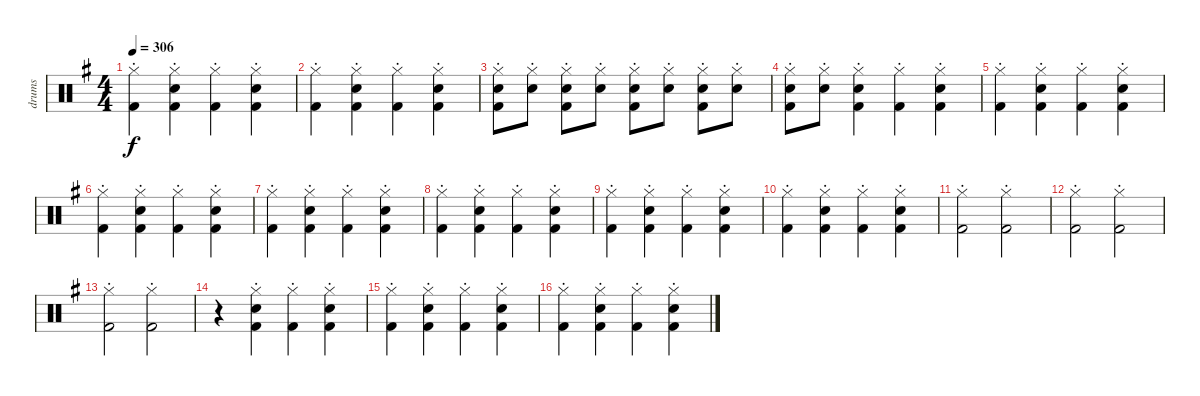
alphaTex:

\track ("drums" "drums") {instrument percussion}
\staff {score}
\articulation defaults
\ts (4 4)
\tempo 306
\clef neutral
\ks g
("Hi-Hat (closed)"{st} "Kick (hit) 2").4{dy f} ("Hi-Hat (closed)"{st} "Electric Snare (hit)" "Kick (hit) 2").4 ("Hi-Hat (closed)"{st} "Kick (hit) 2").4 ("Hi-Hat (closed)"{st} "Electric Snare (hit)" "Kick (hit) 2").4 |
("Hi-Hat (closed)"{st} "Kick (hit) 2").4 ("Hi-Hat (closed)"{st} "Electric Snare (hit)" "Kick (hit) 2").4 ("Hi-Hat (closed)"{st} "Kick (hit) 2").4 ("Hi-Hat (closed)"{st} "Electric Snare (hit)" "Kick (hit) 2").4 |
("Hi-Hat (closed)"{st} "Electric Snare (hit)" "Kick (hit) 2").8 ("Hi-Hat (closed)"{st} "Electric Snare (hit)").8 ("Hi-Hat (closed)"{st} "Electric Snare (hit)" "Kick (hit) 2").8 ("Hi-Hat (closed)"{st} "Electric Snare (hit)").8 ("Hi-Hat (closed)"{st} "Electric Snare (hit)" "Kick (hit) 2").8 ("Hi-Hat (closed)"{st} "Electric Snare (hit)").8 ("Hi-Hat (closed)"{st} "Electric Snare (hit)" "Kick (hit) 2").8 ("Hi-Hat (closed)"{st} "Electric Snare (hit)").8 |
("Hi-Hat (closed)"{st} "Electric Snare (hit)" "Kick (hit) 2").8 ("Hi-Hat (closed)"{st} "Electric Snare (hit)").8 ("Hi-Hat (closed)"{st} "Electric Snare (hit)" "Kick (hit) 2").4 ("Hi-Hat (closed)"{st} "Kick (hit) 2").4 ("Hi-Hat (closed)"{st} "Electric Snare (hit)" "Kick (hit) 2").4 |
("Hi-Hat (closed)"{st} "Kick (hit) 2").4 ("Hi-Hat (closed)"{st} "Electric Snare (hit)" "Kick (hit) 2").4 ("Hi-Hat (closed)"{st} "Kick (hit) 2").4 ("Hi-Hat (closed)"{st} "Electric Snare (hit)" "Kick (hit) 2").4 |
("Hi-Hat (closed)"{st} "Kick (hit) 2").4 ("Hi-Hat (closed)"{st} "Electric Snare (hit)" "Kick (hit) 2").4 ("Hi-Hat (closed)"{st} "Kick (hit) 2").4 ("Hi-Hat (closed)"{st} "Electric Snare (hit)" "Kick (hit) 2").4 |
("Hi-Hat (closed)"{st} "Kick (hit) 2").4 ("Hi-Hat (closed)"{st} "Electric Snare (hit)" "Kick (hit) 2").4 ("Hi-Hat (closed)"{st} "Kick (hit) 2").4 ("Hi-Hat (closed)"{st} "Electric Snare (hit)" "Kick (hit) 2").4 |
("Hi-Hat (closed)"{st} "Kick (hit) 2").4 ("Hi-Hat (closed)"{st} "Electric Snare (hit)" "Kick (hit) 2").4 ("Hi-Hat (closed)"{st} "Kick (hit) 2").4 ("Hi-Hat (closed)"{st} "Electric Snare (hit)" "Kick (hit) 2").4 |
("Hi-Hat (closed)"{st} "Kick (hit) 2").4 ("Hi-Hat (closed)"{st} "Electric Snare (hit)" "Kick (hit) 2").4 ("Hi-Hat (closed)"{st} "Kick (hit) 2").4 ("Hi-Hat (closed)"{st} "Electric Snare (hit)" "Kick (hit) 2").4 |
("Hi-Hat (closed)"{st} "Kick (hit) 2").4 ("Hi-Hat (closed)"{st} "Electric Snare (hit)" "Kick (hit) 2").4 ("Hi-Hat (closed)"{st} "Kick (hit) 2").4 ("Hi-Hat (closed)"{st} "Electric Snare (hit)" "Kick (hit) 2").4 |
("Hi-Hat (closed)"{st} "Kick (hit) 2").2 ("Hi-Hat (closed)"{st} "Kick (hit) 2").2 |
("Hi-Hat (closed)"{st} "Kick (hit) 2").2 ("Hi-Hat (closed)"{st} "Kick (hit) 2").2 |
("Hi-Hat (closed)"{st} "Kick (hit) 2").2 ("Hi-Hat (closed)"{st} "Kick (hit) 2").2 |
r.4 ("Hi-Hat (closed)"{st} "Electric Snare (hit)" "Kick (hit) 2").4 ("Hi-Hat (closed)"{st} "Kick (hit) 2").4 ("Hi-Hat (closed)"{st} "Electric Snare (hit)" "Kick (hit) 2").4 |
("Hi-Hat (closed)"{st} "Kick (hit) 2").4 ("Hi-Hat (closed)"{st} "Electric Snare (hit)" "Kick (hit) 2").4 ("Hi-Hat (closed)"{st} "Kick (hit) 2").4 ("Hi-Hat (closed)"{st} "Electric Snare (hit)" "Kick (hit) 2").4 |
("Hi-Hat (closed)"{st} "Kick (hit) 2").4 ("Hi-Hat (closed)"{st} "Electric Snare (hit)" "Kick (hit) 2").4 ("Hi-Hat (closed)"{st} "Kick (hit) 2").4 ("Hi-Hat (closed)"{st} "Electric Snare (hit)" "Kick (hit) 2").4
